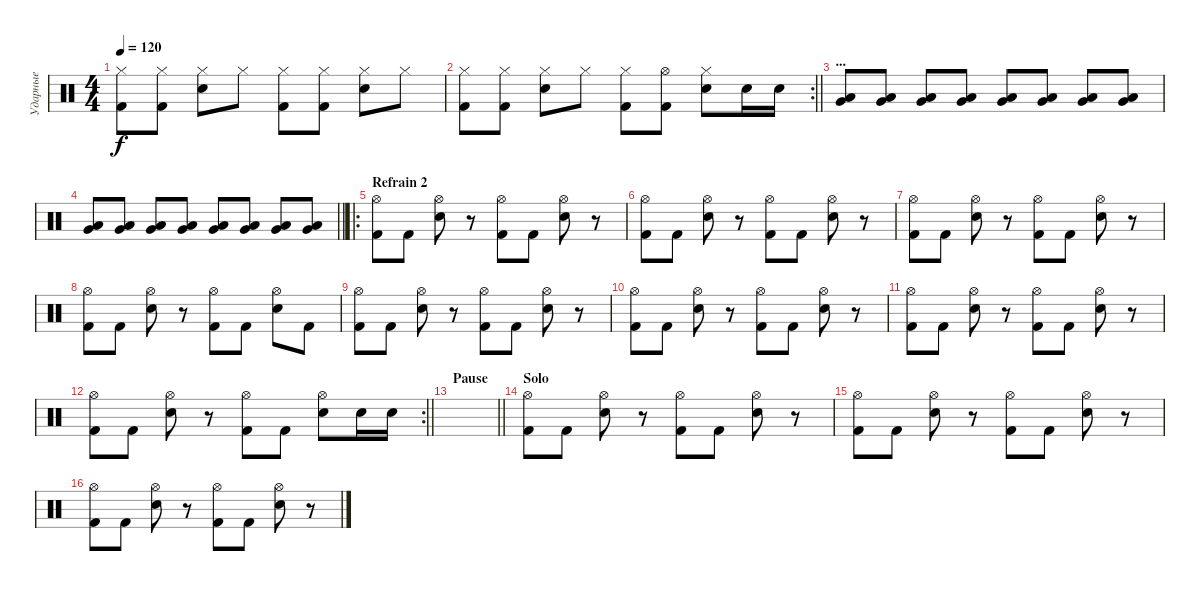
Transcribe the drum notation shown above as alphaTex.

\track ("Ударные" "Ударные") {instrument percussion}
\staff {score}
\articulation defaults
\ts (4 4)
\tempo 120
\clef neutral
\ks c
("Hi-Hat (closed)" "Kick (hit) 2").8{dy f} ("Hi-Hat (closed)" "Kick (hit) 2").8 ("Hi-Hat (closed)" "Electric Snare (hit)").8 "Hi-Hat (closed)".8 ("Hi-Hat (closed)" "Kick (hit) 2").8 ("Hi-Hat (closed)" "Kick (hit) 2").8 ("Hi-Hat (closed)" "Electric Snare (hit)").8 "Hi-Hat (closed)".8 |
\rc 2
\barLineRight lightlight
("Hi-Hat (closed)" "Kick (hit) 2").8 ("Hi-Hat (closed)" "Kick (hit) 2").8 ("Hi-Hat (closed)" "Electric Snare (hit)").8 "Hi-Hat (closed)".8 ("Hi-Hat (closed)" "Kick (hit) 2").8 ("Hi-Hat (open)" "Kick (hit) 2").8 ("Hi-Hat (closed)" "Electric Snare (hit)").8 "Electric Snare (hit)".16 "Electric Snare (hit)".16 |
\section ("" "...")
("Low Tom (hit)" "Very Low Tom (hit)").8 ("Low Tom (hit)" "Very Low Tom (hit)").8 ("Low Tom (hit)" "Very Low Tom (hit)").8 ("Low Tom (hit)" "Very Low Tom (hit)").8 ("Low Tom (hit)" "Very Low Tom (hit)").8 ("Low Tom (hit)" "Very Low Tom (hit)").8 ("Low Tom (hit)" "Very Low Tom (hit)").8 ("Low Tom (hit)" "Very Low Tom (hit)").8 |
\barLineRight lightlight
("Low Tom (hit)" "Very Low Tom (hit)").8 ("Low Tom (hit)" "Very Low Tom (hit)").8 ("Low Tom (hit)" "Very Low Tom (hit)").8 ("Low Tom (hit)" "Very Low Tom (hit)").8 ("Low Tom (hit)" "Very Low Tom (hit)").8 ("Low Tom (hit)" "Very Low Tom (hit)").8 ("Low Tom (hit)" "Very Low Tom (hit)").8 ("Low Tom (hit)" "Very Low Tom (hit)").8 |
\ro
\section ("" "Refrain 2")
("Hi-Hat (open)" "Kick (hit) 2").8 "Kick (hit) 2".8 ("Hi-Hat (open)" "Electric Snare (hit)").8 r.8 ("Hi-Hat (open)" "Kick (hit) 2").8 "Kick (hit) 2".8 ("Hi-Hat (open)" "Electric Snare (hit)").8 r.8 |
("Hi-Hat (open)" "Kick (hit) 2").8 "Kick (hit) 2".8 ("Hi-Hat (open)" "Electric Snare (hit)").8 r.8 ("Hi-Hat (open)" "Kick (hit) 2").8 "Kick (hit) 2".8 ("Hi-Hat (open)" "Electric Snare (hit)").8 r.8 |
("Hi-Hat (open)" "Kick (hit) 2").8 "Kick (hit) 2".8 ("Hi-Hat (open)" "Electric Snare (hit)").8 r.8 ("Hi-Hat (open)" "Kick (hit) 2").8 "Kick (hit) 2".8 ("Hi-Hat (open)" "Electric Snare (hit)").8 r.8 |
("Hi-Hat (open)" "Kick (hit) 2").8 "Kick (hit) 2".8 ("Hi-Hat (open)" "Electric Snare (hit)").8 r.8 ("Hi-Hat (open)" "Kick (hit) 2").8 "Kick (hit) 2".8 ("Hi-Hat (open)" "Electric Snare (hit)").8 "Kick (hit) 2".8 |
("Hi-Hat (open)" "Kick (hit) 2").8 "Kick (hit) 2".8 ("Hi-Hat (open)" "Electric Snare (hit)").8 r.8 ("Hi-Hat (open)" "Kick (hit) 2").8 "Kick (hit) 2".8 ("Hi-Hat (open)" "Electric Snare (hit)").8 r.8 |
("Hi-Hat (open)" "Kick (hit) 2").8 "Kick (hit) 2".8 ("Hi-Hat (open)" "Electric Snare (hit)").8 r.8 ("Hi-Hat (open)" "Kick (hit) 2").8 "Kick (hit) 2".8 ("Hi-Hat (open)" "Electric Snare (hit)").8 r.8 |
("Hi-Hat (open)" "Kick (hit) 2").8 "Kick (hit) 2".8 ("Hi-Hat (open)" "Electric Snare (hit)").8 r.8 ("Hi-Hat (open)" "Kick (hit) 2").8 "Kick (hit) 2".8 ("Hi-Hat (open)" "Electric Snare (hit)").8 r.8 |
\rc 2
\barLineRight lightlight
("Hi-Hat (open)" "Kick (hit) 2").8 "Kick (hit) 2".8 ("Hi-Hat (open)" "Electric Snare (hit)").8 r.8 ("Hi-Hat (open)" "Kick (hit) 2").8 "Kick (hit) 2".8 ("Hi-Hat (open)" "Electric Snare (hit)").8 "Electric Snare (hit)".16 "Electric Snare (hit)".16 |
\section ("" "Pause")
\barLineRight lightlight
|
\section ("" "Solo")
("Hi-Hat (open)" "Kick (hit) 2").8 "Kick (hit) 2".8 ("Hi-Hat (open)" "Electric Snare (hit)").8 r.8 ("Hi-Hat (open)" "Kick (hit) 2").8 "Kick (hit) 2".8 ("Hi-Hat (open)" "Electric Snare (hit)").8 r.8 |
("Hi-Hat (open)" "Kick (hit) 2").8 "Kick (hit) 2".8 ("Hi-Hat (open)" "Electric Snare (hit)").8 r.8 ("Hi-Hat (open)" "Kick (hit) 2").8 "Kick (hit) 2".8 ("Hi-Hat (open)" "Electric Snare (hit)").8 r.8 |
("Hi-Hat (open)" "Kick (hit) 2").8 "Kick (hit) 2".8 ("Hi-Hat (open)" "Electric Snare (hit)").8 r.8 ("Hi-Hat (open)" "Kick (hit) 2").8 "Kick (hit) 2".8 ("Hi-Hat (open)" "Electric Snare (hit)").8 r.8
